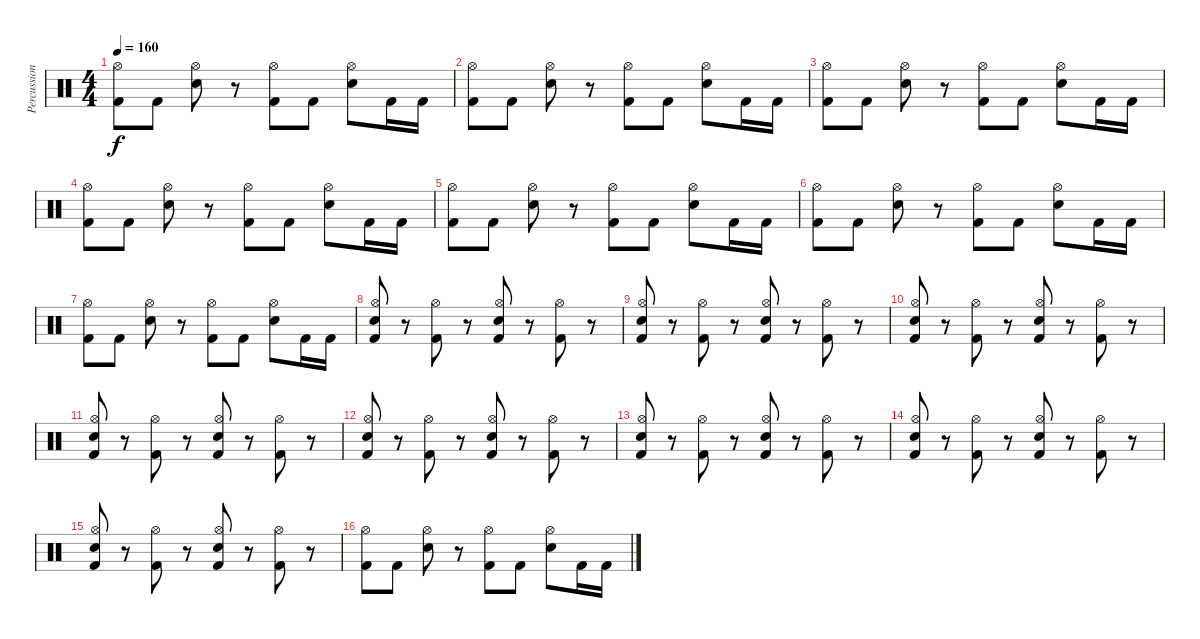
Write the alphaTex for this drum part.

\track ("Percussion" "Percussion") {instrument percussion}
\staff {score}
\articulation defaults
\ts (4 4)
\tempo 160
\clef neutral
\ks c
("Kick (hit) 2" "Hi-Hat (open)").8{dy f} "Kick (hit) 2".8 ("Electric Snare (hit)" "Hi-Hat (open)").8 r.8 ("Kick (hit) 2" "Hi-Hat (open)").8 "Kick (hit) 2".8 ("Electric Snare (hit)" "Hi-Hat (open)").8 "Kick (hit) 2".16 "Kick (hit) 2".16 |
("Kick (hit) 2" "Hi-Hat (open)").8 "Kick (hit) 2".8 ("Electric Snare (hit)" "Hi-Hat (open)").8 r.8 ("Kick (hit) 2" "Hi-Hat (open)").8 "Kick (hit) 2".8 ("Electric Snare (hit)" "Hi-Hat (open)").8 "Kick (hit) 2".16 "Kick (hit) 2".16 |
("Kick (hit) 2" "Hi-Hat (open)").8 "Kick (hit) 2".8 ("Electric Snare (hit)" "Hi-Hat (open)").8 r.8 ("Kick (hit) 2" "Hi-Hat (open)").8 "Kick (hit) 2".8 ("Electric Snare (hit)" "Hi-Hat (open)").8 "Kick (hit) 2".16 "Kick (hit) 2".16 |
("Kick (hit) 2" "Hi-Hat (open)").8 "Kick (hit) 2".8 ("Electric Snare (hit)" "Hi-Hat (open)").8 r.8 ("Kick (hit) 2" "Hi-Hat (open)").8 "Kick (hit) 2".8 ("Electric Snare (hit)" "Hi-Hat (open)").8 "Kick (hit) 2".16 "Kick (hit) 2".16 |
("Kick (hit) 2" "Hi-Hat (open)").8 "Kick (hit) 2".8 ("Electric Snare (hit)" "Hi-Hat (open)").8 r.8 ("Kick (hit) 2" "Hi-Hat (open)").8 "Kick (hit) 2".8 ("Electric Snare (hit)" "Hi-Hat (open)").8 "Kick (hit) 2".16 "Kick (hit) 2".16 |
("Kick (hit) 2" "Hi-Hat (open)").8 "Kick (hit) 2".8 ("Electric Snare (hit)" "Hi-Hat (open)").8 r.8 ("Kick (hit) 2" "Hi-Hat (open)").8 "Kick (hit) 2".8 ("Electric Snare (hit)" "Hi-Hat (open)").8 "Kick (hit) 2".16 "Kick (hit) 2".16 |
("Kick (hit) 2" "Hi-Hat (open)").8 "Kick (hit) 2".8 ("Electric Snare (hit)" "Hi-Hat (open)").8 r.8 ("Kick (hit) 2" "Hi-Hat (open)").8 "Kick (hit) 2".8 ("Electric Snare (hit)" "Hi-Hat (open)").8 "Kick (hit) 2".16 "Kick (hit) 2".16 |
("Kick (hit) 2" "Electric Snare (hit)" "Hi-Hat (open)").8 r.8 ("Kick (hit) 2" "Hi-Hat (open)").8 r.8 ("Kick (hit) 2" "Electric Snare (hit)" "Hi-Hat (open)").8 r.8 ("Kick (hit) 2" "Hi-Hat (open)").8 r.8 |
("Kick (hit) 2" "Electric Snare (hit)" "Hi-Hat (open)").8 r.8 ("Kick (hit) 2" "Hi-Hat (open)").8 r.8 ("Kick (hit) 2" "Electric Snare (hit)" "Hi-Hat (open)").8 r.8 ("Kick (hit) 2" "Hi-Hat (open)").8 r.8 |
("Kick (hit) 2" "Electric Snare (hit)" "Hi-Hat (open)").8 r.8 ("Kick (hit) 2" "Hi-Hat (open)").8 r.8 ("Kick (hit) 2" "Electric Snare (hit)" "Hi-Hat (open)").8 r.8 ("Kick (hit) 2" "Hi-Hat (open)").8 r.8 |
("Kick (hit) 2" "Electric Snare (hit)" "Hi-Hat (open)").8 r.8 ("Kick (hit) 2" "Hi-Hat (open)").8 r.8 ("Kick (hit) 2" "Electric Snare (hit)" "Hi-Hat (open)").8 r.8 ("Kick (hit) 2" "Hi-Hat (open)").8 r.8 |
("Kick (hit) 2" "Electric Snare (hit)" "Hi-Hat (open)").8 r.8 ("Kick (hit) 2" "Hi-Hat (open)").8 r.8 ("Kick (hit) 2" "Electric Snare (hit)" "Hi-Hat (open)").8 r.8 ("Kick (hit) 2" "Hi-Hat (open)").8 r.8 |
("Kick (hit) 2" "Electric Snare (hit)" "Hi-Hat (open)").8 r.8 ("Kick (hit) 2" "Hi-Hat (open)").8 r.8 ("Kick (hit) 2" "Electric Snare (hit)" "Hi-Hat (open)").8 r.8 ("Kick (hit) 2" "Hi-Hat (open)").8 r.8 |
("Kick (hit) 2" "Electric Snare (hit)" "Hi-Hat (open)").8 r.8 ("Kick (hit) 2" "Hi-Hat (open)").8 r.8 ("Kick (hit) 2" "Electric Snare (hit)" "Hi-Hat (open)").8 r.8 ("Kick (hit) 2" "Hi-Hat (open)").8 r.8 |
("Kick (hit) 2" "Electric Snare (hit)" "Hi-Hat (open)").8 r.8 ("Kick (hit) 2" "Hi-Hat (open)").8 r.8 ("Kick (hit) 2" "Electric Snare (hit)" "Hi-Hat (open)").8 r.8 ("Kick (hit) 2" "Hi-Hat (open)").8 r.8 |
("Kick (hit) 2" "Hi-Hat (open)").8 "Kick (hit) 2".8 ("Electric Snare (hit)" "Hi-Hat (open)").8 r.8 ("Kick (hit) 2" "Hi-Hat (open)").8 "Kick (hit) 2".8 ("Electric Snare (hit)" "Hi-Hat (open)").8 "Kick (hit) 2".16 "Kick (hit) 2".16
